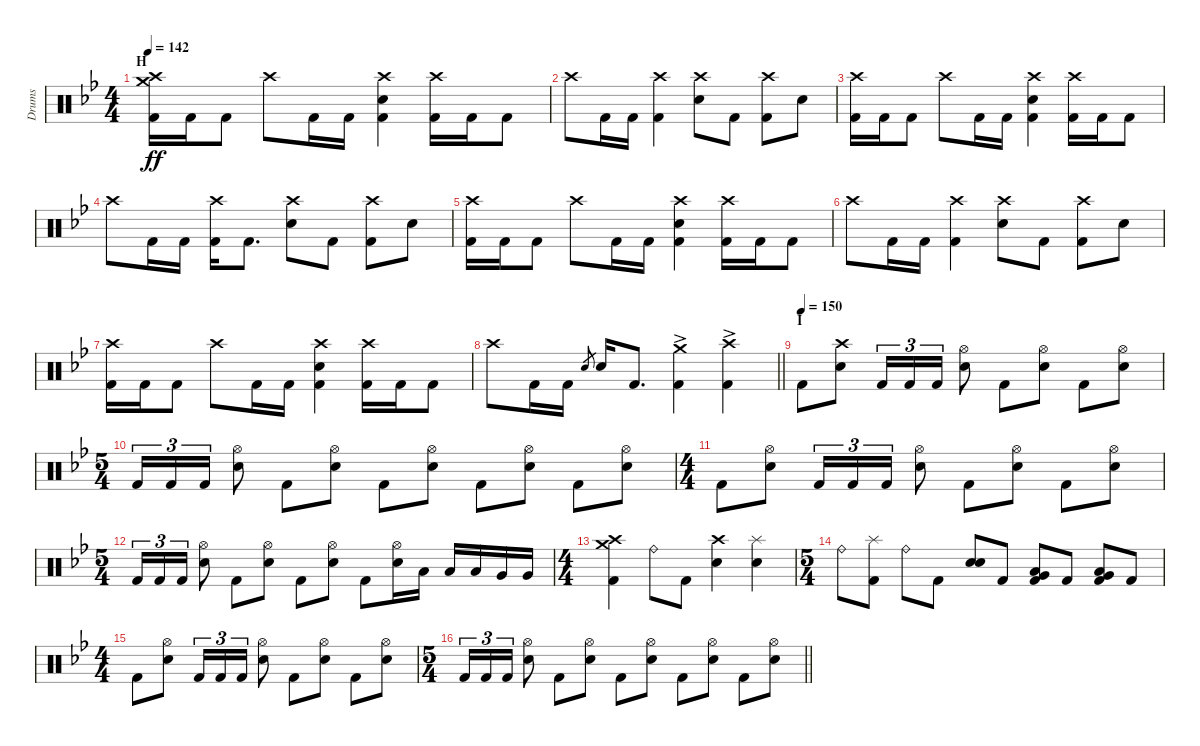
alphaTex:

\track ("Drums" "Drums") {instrument percussion}
\staff {score}
\articulation defaults
\ts (4 4)
\section ("" "H")
\tempo 142
\clef neutral
\ks gminor
("Crash medium (hit)" "Crash high (hit)" "Kick (hit) 2").16{dy ff} "Kick (hit) 2".16 "Kick (hit) 2".8 "Crash high (hit)".8 "Kick (hit) 2".16 "Kick (hit) 2".16 ("Crash high (hit)" "Electric Snare (hit)" "Kick (hit) 2").4 ("Crash high (hit)" "Kick (hit) 2").16 "Kick (hit) 2".16 "Kick (hit) 2".8 |
"Crash high (hit)".8 "Kick (hit) 2".16 "Kick (hit) 2".16 ("Crash high (hit)" "Kick (hit) 2").4 ("Crash high (hit)" "Electric Snare (hit)").8 "Kick (hit) 2".8 ("Crash high (hit)" "Kick (hit) 2").8 "Electric Snare (hit)".8 |
("Crash high (hit)" "Kick (hit) 2").16 "Kick (hit) 2".16 "Kick (hit) 2".8 "Crash high (hit)".8 "Kick (hit) 2".16 "Kick (hit) 2".16 ("Crash high (hit)" "Electric Snare (hit)" "Kick (hit) 2").4 ("Crash high (hit)" "Kick (hit) 2").16 "Kick (hit) 2".16 "Kick (hit) 2".8 |
"Crash high (hit)".8 "Kick (hit) 2".16 "Kick (hit) 2".16 ("Crash high (hit)" "Kick (hit) 2").16 "Kick (hit) 2".8{d} ("Crash high (hit)" "Electric Snare (hit)").8 "Kick (hit) 2".8 ("Crash high (hit)" "Kick (hit) 2").8 "Electric Snare (hit)".8 |
("Crash high (hit)" "Kick (hit) 2").16 "Kick (hit) 2".16 "Kick (hit) 2".8 "Crash high (hit)".8 "Kick (hit) 2".16 "Kick (hit) 2".16 ("Crash high (hit)" "Electric Snare (hit)" "Kick (hit) 2").4 ("Crash high (hit)" "Kick (hit) 2").16 "Kick (hit) 2".16 "Kick (hit) 2".8 |
"Crash high (hit)".8 "Kick (hit) 2".16 "Kick (hit) 2".16 ("Crash high (hit)" "Kick (hit) 2").4 ("Crash high (hit)" "Electric Snare (hit)").8 "Kick (hit) 2".8 ("Crash high (hit)" "Kick (hit) 2").8 "Electric Snare (hit)".8 |
("Crash high (hit)" "Kick (hit) 2").16 "Kick (hit) 2".16 "Kick (hit) 2".8 "Crash high (hit)".8 "Kick (hit) 2".16 "Kick (hit) 2".16 ("Crash high (hit)" "Electric Snare (hit)" "Kick (hit) 2").4 ("Crash high (hit)" "Kick (hit) 2").16 "Kick (hit) 2".16 "Kick (hit) 2".8 |
\barLineRight lightlight "Crash high (hit)".8 "Kick (hit) 2".16 "Kick (hit) 2".16 "Electric Snare (hit)".8{gr} "Electric Snare (hit)".16 "Kick (hit) 2".8{d}
("Crash medium (hit)"{ac} "Kick (hit) 2").4 ("Crash high (hit)"{ac} "Kick (hit) 2").4 |
\section ("" "I")
\tempo (150)
"Kick (hit) 2".8 ("Crash high (hit)" "Electric Snare (hit)").8 "Kick (hit) 2".16{tu (3 2)} "Kick (hit) 2".16{tu (3 2)} "Kick (hit) 2".16{tu (3 2)} ("Hi-Hat (open)" "Electric Snare (hit)").8 "Kick (hit) 2".8 ("Hi-Hat (open)" "Electric Snare (hit)").8 "Kick (hit) 2".8 ("Hi-Hat (open)" "Electric Snare (hit)").8 |
\ts (5 4)
"Kick (hit) 2".16{tu (3 2)} "Kick (hit) 2".16{tu (3 2)} "Kick (hit) 2".16{tu (3 2)} ("Hi-Hat (open)" "Electric Snare (hit)").8 "Kick (hit) 2".8 ("Hi-Hat (open)" "Electric Snare (hit)").8 "Kick (hit) 2".8 ("Hi-Hat (open)" "Electric Snare (hit)").8 "Kick (hit) 2".8 ("Hi-Hat (open)" "Electric Snare (hit)").8 "Kick (hit) 2".8 ("Hi-Hat (open)" "Electric Snare (hit)").8 |
\ts (4 4)
"Kick (hit) 2".8 ("Hi-Hat (open)" "Electric Snare (hit)").8 "Kick (hit) 2".16{tu (3 2)} "Kick (hit) 2".16{tu (3 2)} "Kick (hit) 2".16{tu (3 2)} ("Hi-Hat (open)" "Electric Snare (hit)").8 "Kick (hit) 2".8 ("Hi-Hat (open)" "Electric Snare (hit)").8 "Kick (hit) 2".8 ("Hi-Hat (open)" "Electric Snare (hit)").8 |
\ts (5 4)
"Kick (hit) 2".16{tu (3 2)} "Kick (hit) 2".16{tu (3 2)} "Kick (hit) 2".16{tu (3 2)} ("Hi-Hat (open)" "Electric Snare (hit)").8 "Kick (hit) 2".8 ("Hi-Hat (open)" "Electric Snare (hit)").8 "Kick (hit) 2".8 ("Hi-Hat (open)" "Electric Snare (hit)").8 "Kick (hit) 2".8 ("Hi-Hat (open)" "Electric Snare (hit)").16 "Low Tom (hit)".16 "Low Tom (hit)".16 "Low Tom (hit)".16 "Very Low Tom (hit)".16 "Very Low Tom (hit)".16 |
\ts (4 4)
("Crash medium (hit)" "Crash high (hit)" "Kick (hit) 2").4 "Ride (bell)".8 "Kick (hit) 2".8 ("Crash high (hit)" "Electric Snare (hit)").4 ("Splash (hit)" "Electric Snare (hit)").4 |
\ts (5 4)
"Ride (bell)".8 ("Splash (hit)" "Kick (hit) 2").8 "Ride (bell)".8 "Kick (hit) 2".8 ("Electric Snare (hit)" "Electric Snare (hit)").8{bu 60} "Kick (hit) 2".8 ("Low Tom (hit)" "Very Low Tom (hit)" "Kick (hit) 2").8 "Kick (hit) 2".8 ("Low Tom (hit)" "Very Low Tom (hit)" "Kick (hit) 2").8 "Kick (hit) 2".8 |
\ts (4 4)
"Kick (hit) 2".8 ("Hi-Hat (open)" "Electric Snare (hit)").8 "Kick (hit) 2".16{tu (3 2)} "Kick (hit) 2".16{tu (3 2)} "Kick (hit) 2".16{tu (3 2)} ("Hi-Hat (open)" "Electric Snare (hit)").8 "Kick (hit) 2".8 ("Hi-Hat (open)" "Electric Snare (hit)").8 "Kick (hit) 2".8 ("Hi-Hat (open)" "Electric Snare (hit)").8 |
\ts (5 4)
\barLineRight lightlight "Kick (hit) 2".16{tu (3 2)} "Kick (hit) 2".16{tu (3 2)} "Kick (hit) 2".16{tu (3 2)}
("Hi-Hat (open)" "Electric Snare (hit)").8 "Kick (hit) 2".8 ("Hi-Hat (open)" "Electric Snare (hit)").8 "Kick (hit) 2".8 ("Hi-Hat (open)" "Electric Snare (hit)").8 "Kick (hit) 2".8 ("Hi-Hat (open)" "Electric Snare (hit)").8 "Kick (hit) 2".8 ("Hi-Hat (open)" "Electric Snare (hit)").8
